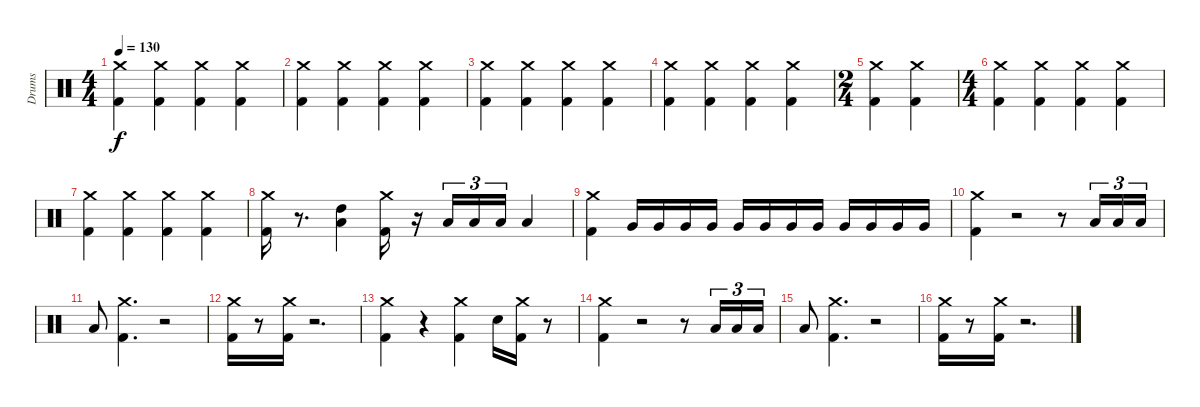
\track ("Drums" "Drums") {instrument percussion}
\staff {score}
\articulation defaults
\ts (4 4)
\tempo 130
\clef neutral
\ks c
("Crash medium (hit)" "Kick (hit) 2").4{dy f} ("Crash medium (hit)" "Kick (hit) 2").4 ("Crash medium (hit)" "Kick (hit) 2").4 ("Crash medium (hit)" "Kick (hit) 2").4 |
("Crash medium (hit)" "Kick (hit) 2").4 ("Crash medium (hit)" "Kick (hit) 2").4 ("Crash medium (hit)" "Kick (hit) 2").4 ("Crash medium (hit)" "Kick (hit) 2").4 |
("Crash medium (hit)" "Kick (hit) 2").4 ("Crash medium (hit)" "Kick (hit) 2").4 ("Crash medium (hit)" "Kick (hit) 2").4 ("Crash medium (hit)" "Kick (hit) 2").4 |
("Crash medium (hit)" "Kick (hit) 2").4 ("Crash medium (hit)" "Kick (hit) 2").4 ("Crash medium (hit)" "Kick (hit) 2").4 ("Crash medium (hit)" "Kick (hit) 2").4 |
\ts (2 4)
("Crash medium (hit)" "Kick (hit) 2").4 ("Crash medium (hit)" "Kick (hit) 2").4 |
\ts (4 4)
("Crash medium (hit)" "Kick (hit) 2").4 ("Crash medium (hit)" "Kick (hit) 2").4 ("Crash medium (hit)" "Kick (hit) 2").4 ("Crash medium (hit)" "Kick (hit) 2").4 |
("Crash medium (hit)" "Kick (hit) 2").4 ("Crash medium (hit)" "Kick (hit) 2").4 ("Crash medium (hit)" "Kick (hit) 2").4 ("Crash medium (hit)" "Kick (hit) 2").4 |
("Crash medium (hit)" "Kick (hit) 2").16 r.8{d} ("High Tom (hit)" "Low Tom (hit)").4 ("Crash medium (hit)" "Kick (hit) 2").16 r.16 "Low Tom (hit)".16{tu (3 2)} "Low Tom (hit)".16{tu (3 2)} "Low Tom (hit)".16{tu (3 2)} "Low Tom (hit)".4 |
("Crash medium (hit)" "Kick (hit) 2").4 "Very Low Tom (hit)".16{volume 5} "Very Low Tom (hit)".16{volume 6} "Very Low Tom (hit)".16{volume 6} "Very Low Tom (hit)".16{volume 7} "Very Low Tom (hit)".16{volume 8} "Very Low Tom (hit)".16{volume 9} "Very Low Tom (hit)".16{volume 9} "Very Low Tom (hit)".16{volume 10} "Very Low Tom (hit)".16{volume 11} "Very Low Tom (hit)".16{volume 12} "Very Low Tom (hit)".16{volume 12} "Very Low Tom (hit)".16{volume 13} |
("Crash medium (hit)" "Kick (hit) 2").4{volume 14} r.2 r.8 "Low Tom (hit)".16{tu (3 2)} "Low Tom (hit)".16{tu (3 2)} "Low Tom (hit)".16{tu (3 2)} |
"Low Floor Tom (hit)".8 ("Crash medium (hit)" "Kick (hit) 2").4{d} r.2 |
("Crash medium (hit)" "Kick (hit) 2").16 r.8 ("Crash medium (hit)" "Kick (hit) 2").16 r.2{d} |
("Crash medium (hit)" "Kick (hit) 2").4 r.4 ("Crash medium (hit)" "Kick (hit) 2").4 "Electric Snare (hit)".16 ("Crash medium (hit)" "Kick (hit) 2").16 r.8 |
("Crash medium (hit)" "Kick (hit) 2").4 r.2 r.8 "Low Tom (hit)".16{tu (3 2)} "Low Tom (hit)".16{tu (3 2)} "Low Tom (hit)".16{tu (3 2)} |
"Low Floor Tom (hit)".8 ("Crash medium (hit)" "Kick (hit) 2").4{d} r.2 |
("Crash medium (hit)" "Kick (hit) 2").16 r.8 ("Crash medium (hit)" "Kick (hit) 2").16 r.2{d}
